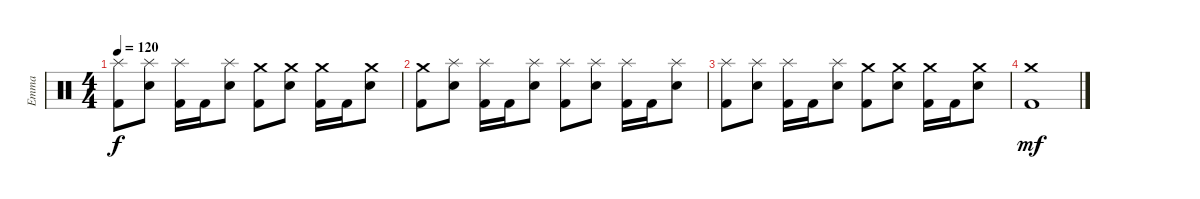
\track ("Emma" "Emma") {instrument percussion}
\staff {score}
\articulation defaults
\ts (4 4)
\tempo 120
\clef neutral
\ks c
("Splash (hit)" "Kick (hit) 2").8{dy f} ("Splash (hit)" "Electric Snare (hit)").8 ("Splash (hit)" "Kick (hit) 2").16 "Kick (hit) 2".16 ("Splash (hit)" "Electric Snare (hit)").8 ("Crash medium (hit)" "Kick (hit) 2").8 ("Crash medium (hit)" "Electric Snare (hit)").8 ("Crash medium (hit)" "Kick (hit) 2").16 "Kick (hit) 2".16 ("Crash medium (hit)" "Electric Snare (hit)").8 |
("Crash medium (hit)" "Kick (hit) 2").8 ("Splash (hit)" "Electric Snare (hit)").8 ("Splash (hit)" "Kick (hit) 2").16 "Kick (hit) 2".16 ("Splash (hit)" "Electric Snare (hit)").8 ("Splash (hit)" "Kick (hit) 2").8 ("Splash (hit)" "Electric Snare (hit)").8 ("Splash (hit)" "Kick (hit) 2").16 "Kick (hit) 2".16 ("Splash (hit)" "Electric Snare (hit)").8 |
("Splash (hit)" "Kick (hit) 2").8 ("Splash (hit)" "Electric Snare (hit)").8 ("Splash (hit)" "Kick (hit) 2").16 "Kick (hit) 2".16 ("Splash (hit)" "Electric Snare (hit)").8 ("Crash medium (hit)" "Kick (hit) 2").8 ("Crash medium (hit)" "Electric Snare (hit)").8 ("Crash medium (hit)" "Kick (hit) 2").16 "Kick (hit) 2".16 ("Crash medium (hit)" "Electric Snare (hit)").8 |
("Crash medium (hit)" "Kick (hit) 2").1{dy mf}
